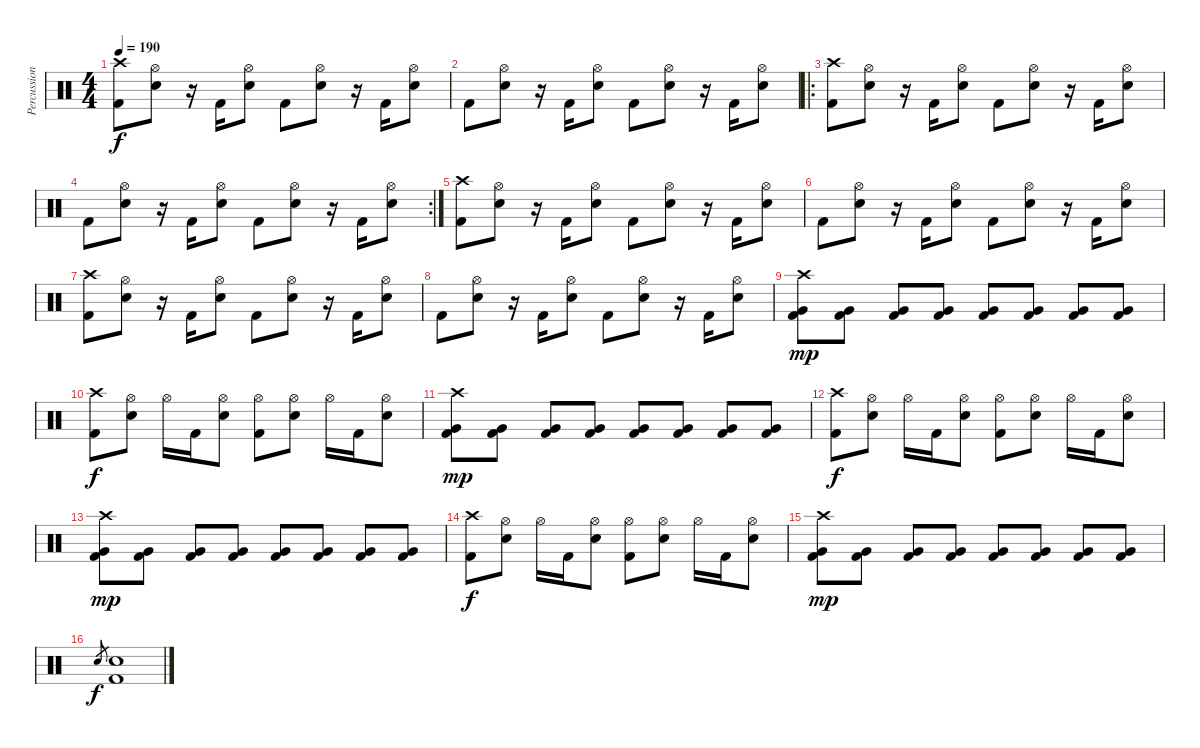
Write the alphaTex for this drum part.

\track ("Percussions" "Percussion") {instrument percussion}
\staff {score}
\articulation defaults
\ts (4 4)
\tempo 190
\clef neutral
\ks c
("Crash high (hit)" "Kick (hit) 2").8{dy f} ("Hi-Hat (open)" "Electric Snare (hit)").8 r.16 "Kick (hit) 2".16 ("Hi-Hat (open)" "Electric Snare (hit)").8 "Kick (hit) 2".8 ("Hi-Hat (open)" "Electric Snare (hit)").8 r.16 "Kick (hit) 2".16 ("Hi-Hat (open)" "Electric Snare (hit)").8 |
"Kick (hit) 2".8 ("Hi-Hat (open)" "Electric Snare (hit)").8 r.16 "Kick (hit) 2".16 ("Hi-Hat (open)" "Electric Snare (hit)").8 "Kick (hit) 2".8 ("Hi-Hat (open)" "Electric Snare (hit)").8 r.16 "Kick (hit) 2".16 ("Hi-Hat (open)" "Electric Snare (hit)").8 |
\ro
("Crash high (hit)" "Kick (hit) 2").8 ("Hi-Hat (open)" "Electric Snare (hit)").8 r.16 "Kick (hit) 2".16 ("Hi-Hat (open)" "Electric Snare (hit)").8 "Kick (hit) 2".8 ("Hi-Hat (open)" "Electric Snare (hit)").8 r.16 "Kick (hit) 2".16 ("Hi-Hat (open)" "Electric Snare (hit)").8 |
\rc 2 "Kick (hit) 2".8
("Hi-Hat (open)" "Electric Snare (hit)").8 r.16 "Kick (hit) 2".16 ("Hi-Hat (open)" "Electric Snare (hit)").8 "Kick (hit) 2".8 ("Hi-Hat (open)" "Electric Snare (hit)").8 r.16 "Kick (hit) 2".16 ("Hi-Hat (open)" "Electric Snare (hit)").8 |
("Crash high (hit)" "Kick (hit) 2").8 ("Hi-Hat (open)" "Electric Snare (hit)").8 r.16 "Kick (hit) 2".16 ("Hi-Hat (open)" "Electric Snare (hit)").8 "Kick (hit) 2".8 ("Hi-Hat (open)" "Electric Snare (hit)").8 r.16 "Kick (hit) 2".16 ("Hi-Hat (open)" "Electric Snare (hit)").8 |
"Kick (hit) 2".8 ("Hi-Hat (open)" "Electric Snare (hit)").8 r.16 "Kick (hit) 2".16 ("Hi-Hat (open)" "Electric Snare (hit)").8 "Kick (hit) 2".8 ("Hi-Hat (open)" "Electric Snare (hit)").8 r.16 "Kick (hit) 2".16 ("Hi-Hat (open)" "Electric Snare (hit)").8 |
("Crash high (hit)" "Kick (hit) 2").8 ("Hi-Hat (open)" "Electric Snare (hit)").8 r.16 "Kick (hit) 2".16 ("Hi-Hat (open)" "Electric Snare (hit)").8 "Kick (hit) 2".8 ("Hi-Hat (open)" "Electric Snare (hit)").8 r.16 "Kick (hit) 2".16 ("Hi-Hat (open)" "Electric Snare (hit)").8 |
"Kick (hit) 2".8 ("Hi-Hat (open)" "Electric Snare (hit)").8 r.16 "Kick (hit) 2".16 ("Hi-Hat (open)" "Electric Snare (hit)").8 "Kick (hit) 2".8 ("Hi-Hat (open)" "Electric Snare (hit)").8 r.16 "Kick (hit) 2".16 ("Hi-Hat (open)" "Electric Snare (hit)").8 |
("Crash high (hit)" "Very Low Tom (hit)" "Kick (hit) 2").8{dy mp} ("Very Low Tom (hit)" "Kick (hit) 2").8 ("Very Low Tom (hit)" "Kick (hit) 2").8 ("Very Low Tom (hit)" "Kick (hit) 2").8 ("Very Low Tom (hit)" "Kick (hit) 2").8 ("Very Low Tom (hit)" "Kick (hit) 2").8 ("Very Low Tom (hit)" "Kick (hit) 2").8 ("Very Low Tom (hit)" "Kick (hit) 2").8 |
("Crash high (hit)" "Kick (hit) 2").8{dy f} ("Hi-Hat (open)" "Electric Snare (hit)").8 "Hi-Hat (open)".16 "Kick (hit) 2".16 ("Hi-Hat (open)" "Electric Snare (hit)").8 ("Hi-Hat (open)" "Kick (hit) 2").8 ("Hi-Hat (open)" "Electric Snare (hit)").8 "Hi-Hat (open)".16 "Kick (hit) 2".16 ("Hi-Hat (open)" "Electric Snare (hit)").8 |
("Crash high (hit)" "Very Low Tom (hit)" "Kick (hit) 2").8{dy mp} ("Very Low Tom (hit)" "Kick (hit) 2").8 ("Very Low Tom (hit)" "Kick (hit) 2").8 ("Very Low Tom (hit)" "Kick (hit) 2").8 ("Very Low Tom (hit)" "Kick (hit) 2").8 ("Very Low Tom (hit)" "Kick (hit) 2").8 ("Very Low Tom (hit)" "Kick (hit) 2").8 ("Very Low Tom (hit)" "Kick (hit) 2").8 |
("Crash high (hit)" "Kick (hit) 2").8{dy f} ("Hi-Hat (open)" "Electric Snare (hit)").8 "Hi-Hat (open)".16 "Kick (hit) 2".16 ("Hi-Hat (open)" "Electric Snare (hit)").8 ("Hi-Hat (open)" "Kick (hit) 2").8 ("Hi-Hat (open)" "Electric Snare (hit)").8 "Hi-Hat (open)".16 "Kick (hit) 2".16 ("Hi-Hat (open)" "Electric Snare (hit)").8 |
("Crash high (hit)" "Very Low Tom (hit)" "Kick (hit) 2").8{dy mp} ("Very Low Tom (hit)" "Kick (hit) 2").8 ("Very Low Tom (hit)" "Kick (hit) 2").8 ("Very Low Tom (hit)" "Kick (hit) 2").8 ("Very Low Tom (hit)" "Kick (hit) 2").8 ("Very Low Tom (hit)" "Kick (hit) 2").8 ("Very Low Tom (hit)" "Kick (hit) 2").8 ("Very Low Tom (hit)" "Kick (hit) 2").8 |
("Crash high (hit)" "Kick (hit) 2").8{dy f} ("Hi-Hat (open)" "Electric Snare (hit)").8 "Hi-Hat (open)".16 "Kick (hit) 2".16 ("Hi-Hat (open)" "Electric Snare (hit)").8 ("Hi-Hat (open)" "Kick (hit) 2").8 ("Hi-Hat (open)" "Electric Snare (hit)").8 "Hi-Hat (open)".16 "Kick (hit) 2".16 ("Hi-Hat (open)" "Electric Snare (hit)").8 |
("Crash high (hit)" "Very Low Tom (hit)" "Kick (hit) 2").8{dy mp} ("Very Low Tom (hit)" "Kick (hit) 2").8 ("Very Low Tom (hit)" "Kick (hit) 2").8 ("Very Low Tom (hit)" "Kick (hit) 2").8 ("Very Low Tom (hit)" "Kick (hit) 2").8 ("Very Low Tom (hit)" "Kick (hit) 2").8 ("Very Low Tom (hit)" "Kick (hit) 2").8 ("Very Low Tom (hit)" "Kick (hit) 2").8 |
"Electric Snare (hit)".8{gr dy f} ("Electric Snare (hit)" "Kick (hit) 2").1
